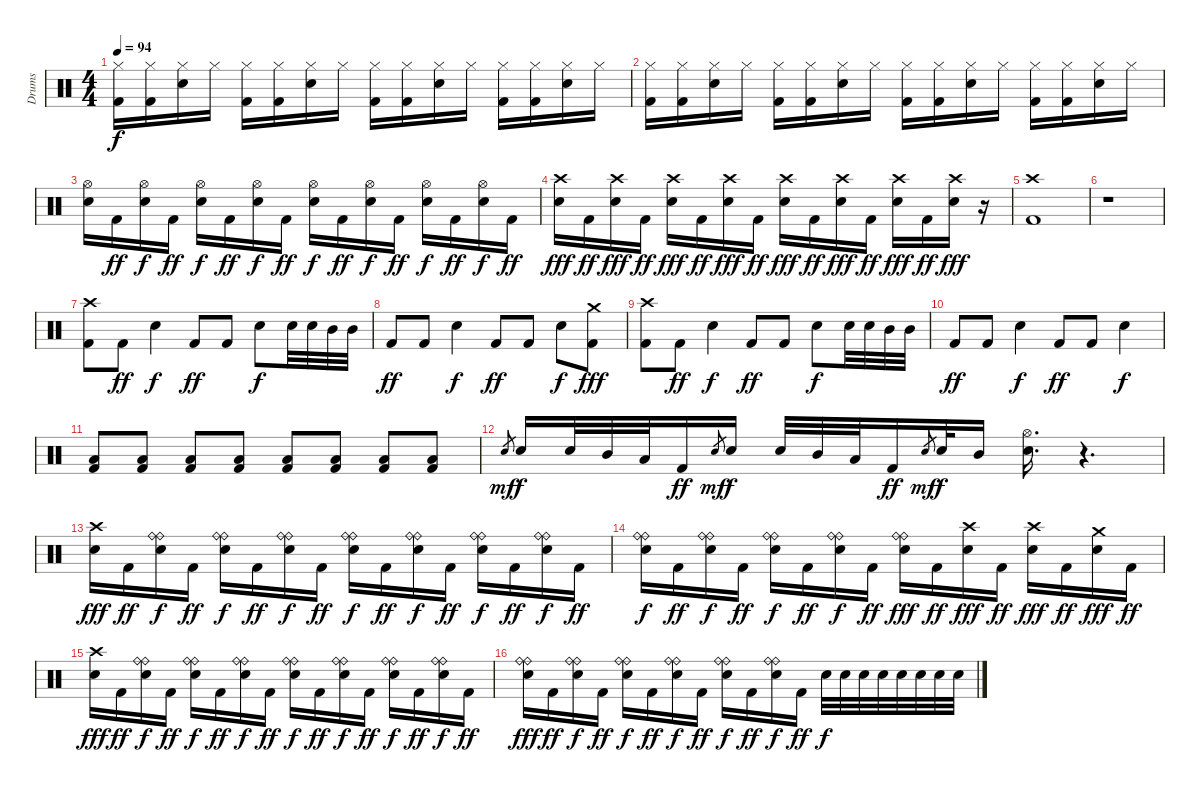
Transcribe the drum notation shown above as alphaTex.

\track ("Drums" "Drums") {instrument percussion}
\staff {score}
\articulation defaults
\ts (4 4)
\tempo 94
\clef neutral
\ks c
("Hi-Hat (closed)" "Kick (hit) 2").16{dy f} ("Hi-Hat (closed)" "Kick (hit) 2").16 ("Hi-Hat (closed)" "Snare (hit) 2").16 "Hi-Hat (closed)".16 ("Hi-Hat (closed)" "Kick (hit) 2").16 ("Hi-Hat (closed)" "Kick (hit) 2").16 ("Hi-Hat (closed)" "Snare (hit) 2").16 "Hi-Hat (closed)".16 ("Hi-Hat (closed)" "Kick (hit) 2").16 ("Hi-Hat (closed)" "Kick (hit) 2").16 ("Hi-Hat (closed)" "Snare (hit) 2").16 "Hi-Hat (closed)".16 ("Hi-Hat (closed)" "Kick (hit) 2").16 ("Hi-Hat (closed)" "Kick (hit) 2").16 ("Hi-Hat (closed)" "Snare (hit) 2").16 "Hi-Hat (closed)".16 |
("Hi-Hat (closed)" "Kick (hit) 2").16 ("Hi-Hat (closed)" "Kick (hit) 2").16 ("Hi-Hat (closed)" "Snare (hit) 2").16 "Hi-Hat (closed)".16 ("Hi-Hat (closed)" "Kick (hit) 2").16 ("Hi-Hat (closed)" "Kick (hit) 2").16 ("Hi-Hat (closed)" "Snare (hit) 2").16 "Hi-Hat (closed)".16 ("Hi-Hat (closed)" "Kick (hit) 2").16 ("Hi-Hat (closed)" "Kick (hit) 2").16 ("Hi-Hat (closed)" "Snare (hit) 2").16 "Hi-Hat (closed)".16 ("Hi-Hat (closed)" "Kick (hit) 2").16 ("Hi-Hat (closed)" "Kick (hit) 2").16 ("Hi-Hat (closed)" "Snare (hit) 2").16 "Hi-Hat (closed)".16 |
("Hi-Hat (open)" "Snare (hit) 2").16 "Kick (hit) 2".16{dy ff} ("Hi-Hat (open)" "Snare (hit) 2").16{dy f} "Kick (hit) 2".16{dy ff} ("Hi-Hat (open)" "Snare (hit) 2").16{dy f} "Kick (hit) 2".16{dy ff} ("Hi-Hat (open)" "Snare (hit) 2").16{dy f} "Kick (hit) 2".16{dy ff} ("Hi-Hat (open)" "Snare (hit) 2").16{dy f} "Kick (hit) 2".16{dy ff} ("Hi-Hat (open)" "Snare (hit) 2").16{dy f} "Kick (hit) 2".16{dy ff} ("Hi-Hat (open)" "Snare (hit) 2").16{dy f} "Kick (hit) 2".16{dy ff} ("Hi-Hat (open)" "Snare (hit) 2").16{dy f} "Kick (hit) 2".16{dy ff} |
("Crash high (hit)" "Snare (hit) 2").16{dy fff} "Kick (hit) 2".16{dy ff} ("Crash high (hit)" "Snare (hit) 2").16{dy fff} "Kick (hit) 2".16{dy ff} ("Crash high (hit)" "Snare (hit) 2").16{dy fff} "Kick (hit) 2".16{dy ff} ("Crash high (hit)" "Snare (hit) 2").16{dy fff} "Kick (hit) 2".16{dy ff} ("Crash high (hit)" "Snare (hit) 2").16{dy fff} "Kick (hit) 2".16{dy ff} ("Crash high (hit)" "Snare (hit) 2").16{dy fff} "Kick (hit) 2".16{dy ff} ("Crash high (hit)" "Snare (hit) 2").16{dy fff} "Kick (hit) 2".16{dy ff} ("Crash high (hit)" "Snare (hit) 2").16{dy fff} r.16 |
("Crash high (hit)" "Kick (hit) 2").1 |
r.1 |
("Crash high (hit)" "Kick (hit) 2").8 "Kick (hit) 2".8{dy ff} "Snare (hit) 2".4{dy f} "Kick (hit) 2".8{dy ff} "Kick (hit) 2".8 "Snare (hit) 2".8{dy f} "Snare (hit) 2".32 "Snare (hit) 2".32 "Mid Tom (hit)".32 "Mid Tom (hit)".32 |
"Kick (hit) 2".8{dy ff} "Kick (hit) 2".8 "Snare (hit) 2".4{dy f} "Kick (hit) 2".8{dy ff} "Kick (hit) 2".8 "Snare (hit) 2".8{dy f} ("Crash medium (hit)" "Kick (hit) 2").8{dy fff} |
("Crash high (hit)" "Kick (hit) 2").8 "Kick (hit) 2".8{dy ff} "Snare (hit) 2".4{dy f} "Kick (hit) 2".8{dy ff} "Kick (hit) 2".8 "Snare (hit) 2".8{dy f} "Snare (hit) 2".32 "Snare (hit) 2".32 "Mid Tom (hit)".32 "Mid Tom (hit)".32 |
"Kick (hit) 2".8{dy ff} "Kick (hit) 2".8 "Snare (hit) 2".4{dy f} "Kick (hit) 2".8{dy ff} "Kick (hit) 2".8 "Snare (hit) 2".4{dy f} |
("Low Floor Tom (hit)" "Kick (hit) 2").8 ("Low Floor Tom (hit)" "Kick (hit) 2").8 ("Low Floor Tom (hit)" "Kick (hit) 2").8 ("Low Floor Tom (hit)" "Kick (hit) 2").8 ("Low Floor Tom (hit)" "Kick (hit) 2").8 ("Low Floor Tom (hit)" "Kick (hit) 2").8 ("Low Floor Tom (hit)" "Kick (hit) 2").8 ("Low Floor Tom (hit)" "Kick (hit) 2").8 |
"Snare (hit)".8{gr dy mf} "Snare (hit) 2".16{dy f} "Snare (hit) 2".32 "Mid Tom (hit)".32 "Low Floor Tom (hit)".32 "Kick (hit) 2".16{dy ff} "Snare (hit)".8{gr dy mf} "Snare (hit) 2".16{dy f} "Snare (hit) 2".32 "Mid Tom (hit)".32 "Low Floor Tom (hit)".32 "Kick (hit) 2".16{dy ff} "Snare (hit)".8{gr dy mf} "Snare (hit) 2".32{dy f} "Mid Tom (hit)".16 ("Hi-Hat (open)" "Snare (hit) 2").16{d} r.4{d} |
("Crash high (hit)" "Snare (hit) 2").16{dy fff} "Kick (hit) 2".16{dy ff} ("Ride (bell)" "Ride (bell)" "Snare (hit) 2").16{dy f} "Kick (hit) 2".16{dy ff} ("Ride (bell)" "Ride (bell)" "Snare (hit) 2").16{dy f} "Kick (hit) 2".16{dy ff} ("Ride (bell)" "Ride (bell)" "Snare (hit) 2").16{dy f} "Kick (hit) 2".16{dy ff} ("Ride (bell)" "Ride (bell)" "Snare (hit) 2").16{dy f} "Kick (hit) 2".16{dy ff} ("Ride (bell)" "Ride (bell)" "Snare (hit) 2").16{dy f} "Kick (hit) 2".16{dy ff} ("Ride (bell)" "Ride (bell)" "Snare (hit) 2").16{dy f} "Kick (hit) 2".16{dy ff} ("Ride (bell)" "Ride (bell)" "Snare (hit) 2").16{dy f} "Kick (hit) 2".16{dy ff} |
("Ride (bell)" "Ride (bell)" "Snare (hit) 2").16{dy f} "Kick (hit) 2".16{dy ff} ("Ride (bell)" "Ride (bell)" "Snare (hit) 2").16{dy f} "Kick (hit) 2".16{dy ff} ("Ride (bell)" "Ride (bell)" "Snare (hit) 2").16{dy f} "Kick (hit) 2".16{dy ff} ("Ride (bell)" "Ride (bell)" "Snare (hit) 2").16{dy f} "Kick (hit) 2".16{dy ff} ("Ride (bell)" "Ride (bell)" "Snare (hit) 2").16{dy fff} "Kick (hit) 2".16{dy ff} ("Crash high (hit)" "Snare (hit) 2").16{dy fff} "Kick (hit) 2".16{dy ff} ("Crash high (hit)" "Snare (hit) 2").16{dy fff} "Kick (hit) 2".16{dy ff} ("Crash medium (hit)" "Snare (hit) 2").16{dy fff} "Kick (hit) 2".16{dy ff} |
("Crash high (hit)" "Snare (hit) 2").16{dy fff} "Kick (hit) 2".16{dy ff} ("Ride (bell)" "Ride (bell)" "Snare (hit) 2").16{dy f} "Kick (hit) 2".16{dy ff} ("Ride (bell)" "Ride (bell)" "Snare (hit) 2").16{dy f} "Kick (hit) 2".16{dy ff} ("Ride (bell)" "Ride (bell)" "Snare (hit) 2").16{dy f} "Kick (hit) 2".16{dy ff} ("Ride (bell)" "Ride (bell)" "Snare (hit) 2").16{dy f} "Kick (hit) 2".16{dy ff} ("Ride (bell)" "Ride (bell)" "Snare (hit) 2").16{dy f} "Kick (hit) 2".16{dy ff} ("Ride (bell)" "Ride (bell)" "Snare (hit) 2").16{dy f} "Kick (hit) 2".16{dy ff} ("Ride (bell)" "Ride (bell)" "Snare (hit) 2").16{dy f} "Kick (hit) 2".16{dy ff} |
("Ride (bell)" "Ride (bell)" "Snare (hit) 2").16{dy fff} "Kick (hit) 2".16{dy ff} ("Ride (bell)" "Ride (bell)" "Snare (hit) 2").16{dy f} "Kick (hit) 2".16{dy ff} ("Ride (bell)" "Ride (bell)" "Snare (hit) 2").16{dy f} "Kick (hit) 2".16{dy ff} ("Ride (bell)" "Ride (bell)" "Snare (hit) 2").16{dy f} "Kick (hit) 2".16{dy ff} ("Ride (bell)" "Ride (bell)" "Snare (hit) 2").16{dy f} "Kick (hit) 2".16{dy ff} ("Ride (bell)" "Ride (bell)" "Snare (hit) 2").16{dy f} "Kick (hit) 2".16{dy ff} "Snare (hit) 2".32{dy f} "Snare (hit) 2".32 "Snare (hit) 2".32 "Snare (hit) 2".32 "Snare (hit) 2".32 "Snare (hit) 2".32 "Snare (hit) 2".32 "Snare (hit) 2".32
